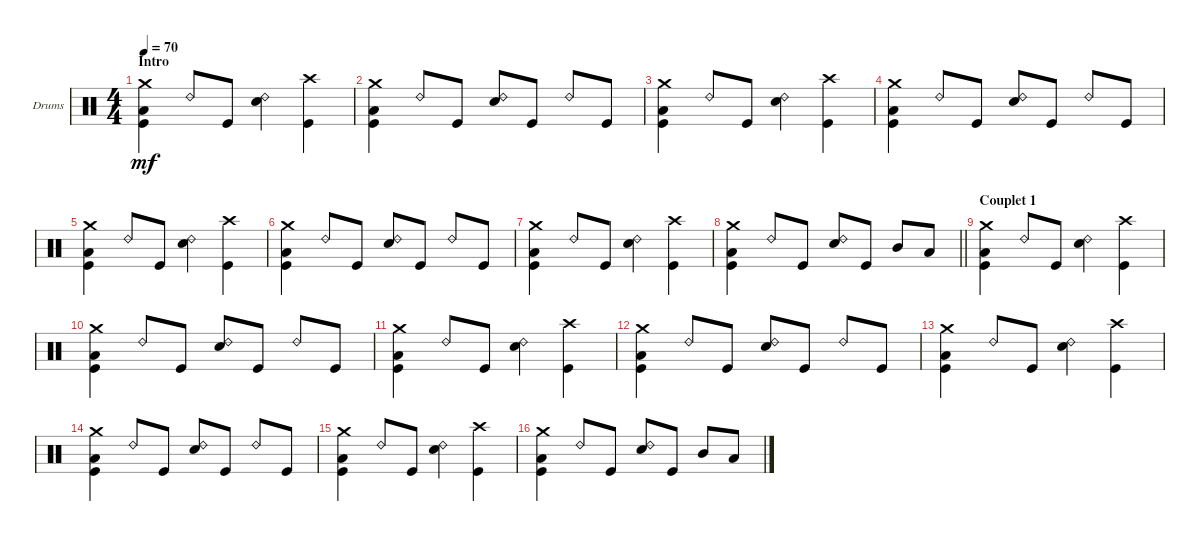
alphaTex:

\bracketExtendMode groupsimilarinstruments
\firstSystemTrackNameOrientation horizontal
\otherSystemsTrackNameOrientation horizontal
\track ("Drumkit" "Drums") {instrument percussion}
\staff {score}
\articulation defaults
\ts (4 4)
\section ("" "Intro")
\scale
0.416867
\tempo 70
\accidentals auto
\clef neutral
\ottava regular
\simile none
\scale
0.373626
\ks c
("Crash medium (hit)" "Kick (hit)" "Low Tom (hit)").4{dy mf} "Ride (bell) 2".8 "Kick (hit)".8 ("Snare (hit) 2" "Ride (bell) 2").4 ("Crash high (hit)" "Kick (hit)").4 |
\scale
0.142169
\scale
0.208791 ("Crash medium (hit)" "Kick (hit)" "Low Tom (hit)").4 "Ride (bell) 2".8 "Kick (hit)".8 ("Snare (hit) 2" "Ride (bell) 2").8 "Kick (hit)".8 "Ride (bell) 2".8 "Kick (hit)".8 |
\scale
0.298795
\scale
0.208791 ("Crash medium (hit)" "Kick (hit)" "Low Tom (hit)").4 "Ride (bell) 2".8 "Kick (hit)".8 ("Snare (hit) 2" "Ride (bell) 2").4 ("Crash high (hit)" "Kick (hit)").4 |
\scale
0.142169
\scale
0.208791 ("Crash medium (hit)" "Kick (hit)" "Low Tom (hit)").4 "Ride (bell) 2".8 "Kick (hit)".8 ("Snare (hit) 2" "Ride (bell) 2").8 "Kick (hit)".8 "Ride (bell) 2".8 "Kick (hit)".8 |
\scale
0.338798
\scale
0.25 ("Crash medium (hit)" "Kick (hit)" "Low Tom (hit)").4 "Ride (bell) 2".8 "Kick (hit)".8 ("Snare (hit) 2" "Ride (bell) 2").4 ("Crash high (hit)" "Kick (hit)").4 |
\scale
0.161202
\scale
0.25 ("Crash medium (hit)" "Kick (hit)" "Low Tom (hit)").4 "Ride (bell) 2".8 "Kick (hit)".8 ("Snare (hit) 2" "Ride (bell) 2").8 "Kick (hit)".8 "Ride (bell) 2".8 "Kick (hit)".8 |
\scale
0.338798
\scale
0.25 ("Crash medium (hit)" "Kick (hit)" "Low Tom (hit)").4 "Ride (bell) 2".8 "Kick (hit)".8 ("Snare (hit) 2" "Ride (bell) 2").4 ("Crash high (hit)" "Kick (hit)").4 |
\scale
0.161202
\scale
0.25
\barLineRight lightlight
("Crash medium (hit)" "Kick (hit)" "Low Tom (hit)").4 "Ride (bell) 2".8 "Kick (hit)".8 ("Ride (bell) 2" "Snare (hit) 2").8 "Kick (hit)".8 "Mid Tom (hit)".8 "Low Tom (hit)".8 |
\section ("" "Couplet 1")
\scale
0.338798
\scale
0.25 ("Crash medium (hit)" "Kick (hit)" "Low Tom (hit)").4 "Ride (bell) 2".8 "Kick (hit)".8 ("Snare (hit) 2" "Ride (bell) 2").4 ("Crash high (hit)" "Kick (hit)").4 |
\scale
0.161202
\scale
0.25 ("Crash medium (hit)" "Kick (hit)" "Low Tom (hit)").4 "Ride (bell) 2".8 "Kick (hit)".8 ("Snare (hit) 2" "Ride (bell) 2").8 "Kick (hit)".8 "Ride (bell) 2".8 "Kick (hit)".8 |
\scale
0.338798
\scale
0.25 ("Crash medium (hit)" "Kick (hit)" "Low Tom (hit)").4 "Ride (bell) 2".8 "Kick (hit)".8 ("Snare (hit) 2" "Ride (bell) 2").4 ("Crash high (hit)" "Kick (hit)").4 |
\scale
0.161202
\scale
0.25 ("Crash medium (hit)" "Kick (hit)" "Low Tom (hit)").4 "Ride (bell) 2".8 "Kick (hit)".8 ("Snare (hit) 2" "Ride (bell) 2").8 "Kick (hit)".8 "Ride (bell) 2".8 "Kick (hit)".8 |
\scale
0.338798
\scale
0.25 ("Crash medium (hit)" "Kick (hit)" "Low Tom (hit)").4 "Ride (bell) 2".8 "Kick (hit)".8 ("Snare (hit) 2" "Ride (bell) 2").4 ("Crash high (hit)" "Kick (hit)").4 |
\scale
0.161202
\scale
0.25 ("Crash medium (hit)" "Kick (hit)" "Low Tom (hit)").4 "Ride (bell) 2".8 "Kick (hit)".8 ("Snare (hit) 2" "Ride (bell) 2").8 "Kick (hit)".8 "Ride (bell) 2".8 "Kick (hit)".8 |
\scale
0.338798
\scale
0.25 ("Crash medium (hit)" "Kick (hit)" "Low Tom (hit)").4 "Ride (bell) 2".8 "Kick (hit)".8 ("Snare (hit) 2" "Ride (bell) 2").4 ("Crash high (hit)" "Kick (hit)").4 |
\scale
0.161202
\scale
0.25 ("Crash medium (hit)" "Kick (hit)" "Low Tom (hit)").4 "Ride (bell) 2".8 "Kick (hit)".8 ("Ride (bell) 2" "Snare (hit) 2").8 "Kick (hit)".8 "Mid Tom (hit)".8 "Low Tom (hit)".8
